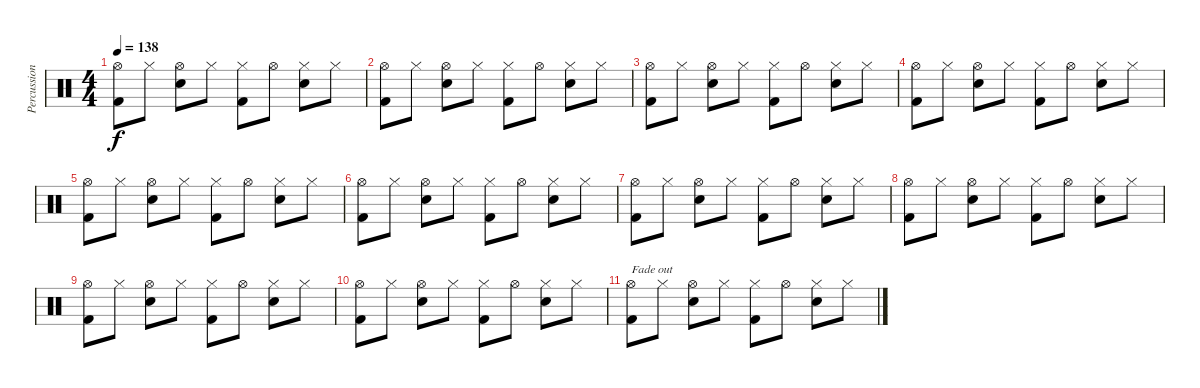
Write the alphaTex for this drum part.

\track ("Percussions" "Percussion") {instrument percussion}
\staff {score}
\articulation defaults
\ts (4 4)
\tempo 138
\clef neutral
\ks c
("Hi-Hat (open)" "Kick (hit) 2").8{dy f} "Hi-Hat (closed)".8 ("Hi-Hat (open)" "Snare (hit) 2").8 "Hi-Hat (closed)".8 ("Hi-Hat (closed)" "Kick (hit) 2").8 "Hi-Hat (open)".8 ("Hi-Hat (closed)" "Snare (hit) 2").8 "Hi-Hat (closed)".8 |
("Hi-Hat (open)" "Kick (hit) 2").8 "Hi-Hat (closed)".8 ("Hi-Hat (open)" "Snare (hit) 2").8 "Hi-Hat (closed)".8 ("Hi-Hat (closed)" "Kick (hit) 2").8 "Hi-Hat (open)".8 ("Hi-Hat (closed)" "Snare (hit) 2").8 "Hi-Hat (closed)".8 |
("Hi-Hat (open)" "Kick (hit) 2").8 "Hi-Hat (closed)".8 ("Hi-Hat (open)" "Snare (hit) 2").8 "Hi-Hat (closed)".8 ("Hi-Hat (closed)" "Kick (hit) 2").8 "Hi-Hat (open)".8 ("Hi-Hat (closed)" "Snare (hit) 2").8 "Hi-Hat (closed)".8 |
("Hi-Hat (open)" "Kick (hit) 2").8 "Hi-Hat (closed)".8 ("Hi-Hat (open)" "Snare (hit) 2").8 "Hi-Hat (closed)".8 ("Hi-Hat (closed)" "Kick (hit) 2").8 "Hi-Hat (open)".8 ("Hi-Hat (closed)" "Snare (hit) 2").8 "Hi-Hat (closed)".8 |
("Hi-Hat (open)" "Kick (hit) 2").8 "Hi-Hat (closed)".8 ("Hi-Hat (open)" "Snare (hit) 2").8 "Hi-Hat (closed)".8 ("Hi-Hat (closed)" "Kick (hit) 2").8 "Hi-Hat (open)".8 ("Hi-Hat (closed)" "Snare (hit) 2").8 "Hi-Hat (closed)".8 |
("Hi-Hat (open)" "Kick (hit) 2").8 "Hi-Hat (closed)".8 ("Hi-Hat (open)" "Snare (hit) 2").8 "Hi-Hat (closed)".8 ("Hi-Hat (closed)" "Kick (hit) 2").8 "Hi-Hat (open)".8 ("Hi-Hat (closed)" "Snare (hit) 2").8 "Hi-Hat (closed)".8 |
("Hi-Hat (open)" "Kick (hit) 2").8 "Hi-Hat (closed)".8 ("Hi-Hat (open)" "Snare (hit) 2").8 "Hi-Hat (closed)".8 ("Hi-Hat (closed)" "Kick (hit) 2").8 "Hi-Hat (open)".8 ("Hi-Hat (closed)" "Snare (hit) 2").8 "Hi-Hat (closed)".8 |
("Hi-Hat (open)" "Kick (hit) 2").8 "Hi-Hat (closed)".8 ("Hi-Hat (open)" "Snare (hit) 2").8 "Hi-Hat (closed)".8 ("Hi-Hat (closed)" "Kick (hit) 2").8 "Hi-Hat (open)".8 ("Hi-Hat (closed)" "Snare (hit) 2").8 "Hi-Hat (closed)".8 |
("Hi-Hat (open)" "Kick (hit) 2").8 "Hi-Hat (closed)".8 ("Hi-Hat (open)" "Snare (hit) 2").8 "Hi-Hat (closed)".8 ("Hi-Hat (closed)" "Kick (hit) 2").8 "Hi-Hat (open)".8 ("Hi-Hat (closed)" "Snare (hit) 2").8 "Hi-Hat (closed)".8 |
("Hi-Hat (open)" "Kick (hit) 2").8 "Hi-Hat (closed)".8 ("Hi-Hat (open)" "Snare (hit) 2").8 "Hi-Hat (closed)".8 ("Hi-Hat (closed)" "Kick (hit) 2").8 "Hi-Hat (open)".8 ("Hi-Hat (closed)" "Snare (hit) 2").8 "Hi-Hat (closed)".8 |
("Hi-Hat (open)" "Kick (hit) 2").8{txt "Fade out"} "Hi-Hat (closed)".8 ("Hi-Hat (open)" "Snare (hit) 2").8 "Hi-Hat (closed)".8 ("Hi-Hat (closed)" "Kick (hit) 2").8 "Hi-Hat (open)".8 ("Hi-Hat (closed)" "Snare (hit) 2").8 "Hi-Hat (closed)".8
